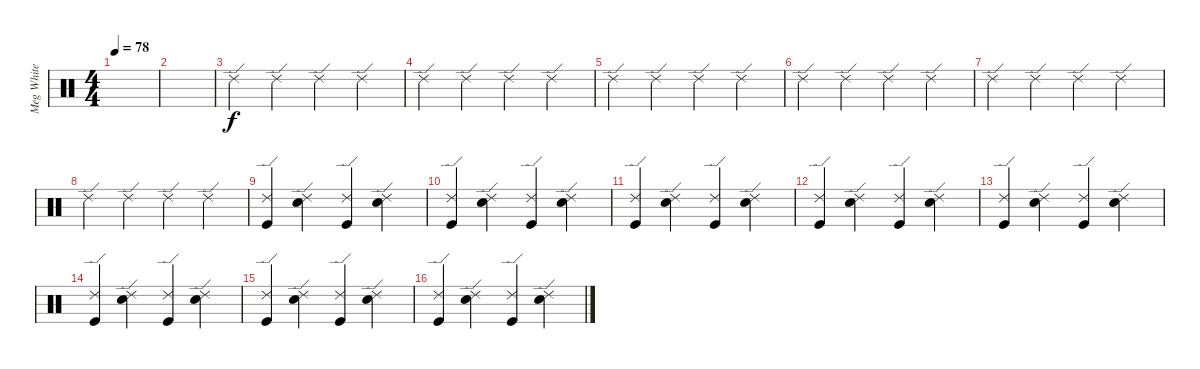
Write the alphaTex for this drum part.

\track ("Meg White" "Meg White") {instrument percussion}
\staff {score}
\articulation defaults
\ts (4 4)
\tempo 78
\clef neutral
\ks c
|
|
"Ride (edge) 2".4 "Ride (edge) 2".4 "Ride (edge) 2".4 "Ride (edge) 2".4 |
"Ride (edge) 2".4 "Ride (edge) 2".4 "Ride (edge) 2".4 "Ride (edge) 2".4 |
"Ride (edge) 2".4 "Ride (edge) 2".4 "Ride (edge) 2".4 "Ride (edge) 2".4 |
"Ride (edge) 2".4 "Ride (edge) 2".4 "Ride (edge) 2".4 "Ride (edge) 2".4 |
"Ride (edge) 2".4 "Ride (edge) 2".4 "Ride (edge) 2".4 "Ride (edge) 2".4 |
"Ride (edge) 2".4 "Ride (edge) 2".4 "Ride (edge) 2".4 "Ride (edge) 2".4 |
("Ride (edge) 2" "Kick (hit)").4 ("Ride (edge) 2" "Snare (hit) 2").4 ("Ride (edge) 2" "Kick (hit)").4 ("Ride (edge) 2" "Snare (hit) 2").4 |
("Ride (edge) 2" "Kick (hit)").4 ("Ride (edge) 2" "Snare (hit) 2").4 ("Ride (edge) 2" "Kick (hit)").4 ("Ride (edge) 2" "Snare (hit) 2").4 |
("Ride (edge) 2" "Kick (hit)").4 ("Ride (edge) 2" "Snare (hit) 2").4 ("Ride (edge) 2" "Kick (hit)").4 ("Ride (edge) 2" "Snare (hit) 2").4 |
("Ride (edge) 2" "Kick (hit)").4 ("Ride (edge) 2" "Snare (hit) 2").4 ("Ride (edge) 2" "Kick (hit)").4 ("Ride (edge) 2" "Snare (hit) 2").4 |
("Ride (edge) 2" "Kick (hit)").4 ("Ride (edge) 2" "Snare (hit) 2").4 ("Ride (edge) 2" "Kick (hit)").4 ("Ride (edge) 2" "Snare (hit) 2").4 |
("Ride (edge) 2" "Kick (hit)").4 ("Ride (edge) 2" "Snare (hit) 2").4 ("Ride (edge) 2" "Kick (hit)").4 ("Ride (edge) 2" "Snare (hit) 2").4 |
("Ride (edge) 2" "Kick (hit)").4 ("Ride (edge) 2" "Snare (hit) 2").4 ("Ride (edge) 2" "Kick (hit)").4 ("Ride (edge) 2" "Snare (hit) 2").4 |
("Ride (edge) 2" "Kick (hit)").4 ("Ride (edge) 2" "Snare (hit) 2").4 ("Ride (edge) 2" "Kick (hit)").4 ("Ride (edge) 2" "Snare (hit) 2").4
